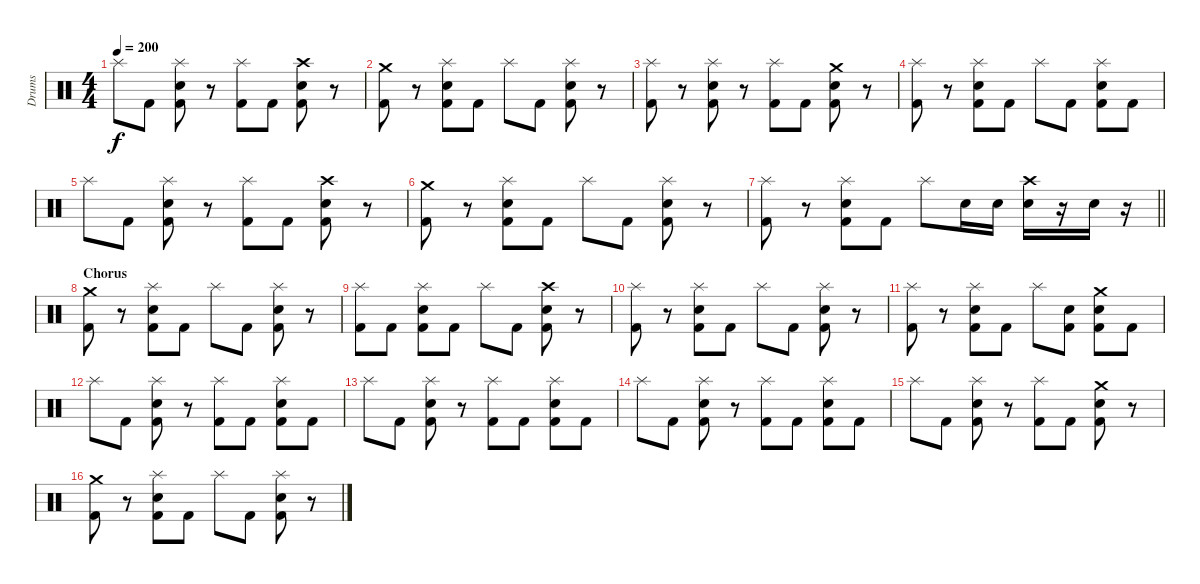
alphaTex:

\track ("Drums" "Drums") {instrument percussion}
\staff {score}
\articulation defaults
\ts (4 4)
\tempo 200
\clef neutral
\ks c "Splash (hit)".8{dy f} "Kick (hit) 2".8
("Splash (hit)" "Snare (hit) 2" "Kick (hit) 2").8 r.8 ("Splash (hit)" "Kick (hit) 2").8 "Kick (hit) 2".8 ("Crash high (hit)" "Snare (hit) 2" "Kick (hit) 2").8 r.8 |
("Crash medium (hit)" "Kick (hit) 2").8 r.8 ("Splash (hit)" "Snare (hit) 2" "Kick (hit) 2").8 "Kick (hit) 2".8 "Splash (hit)".8 "Kick (hit) 2".8 ("Splash (hit)" "Snare (hit) 2" "Kick (hit) 2").8 r.8 |
("Splash (hit)" "Kick (hit) 2").8 r.8 ("Splash (hit)" "Snare (hit) 2" "Kick (hit) 2").8 r.8 ("Splash (hit)" "Kick (hit) 2").8 "Kick (hit) 2".8 ("Crash medium (hit)" "Snare (hit) 2" "Kick (hit) 2").8 r.8 |
("Splash (hit)" "Kick (hit) 2").8 r.8 ("Splash (hit)" "Snare (hit) 2" "Kick (hit) 2").8 "Kick (hit) 2".8 "Splash (hit)".8 "Kick (hit) 2".8 ("Splash (hit)" "Snare (hit) 2" "Kick (hit) 2").8 "Kick (hit) 2".8 |
"Splash (hit)".8 "Kick (hit) 2".8 ("Splash (hit)" "Snare (hit) 2" "Kick (hit) 2").8 r.8 ("Splash (hit)" "Kick (hit) 2").8 "Kick (hit) 2".8 ("Crash high (hit)" "Snare (hit) 2" "Kick (hit) 2").8 r.8 |
("Crash medium (hit)" "Kick (hit) 2").8 r.8 ("Splash (hit)" "Snare (hit) 2" "Kick (hit) 2").8 "Kick (hit) 2".8 "Splash (hit)".8 "Kick (hit) 2".8 ("Splash (hit)" "Snare (hit) 2" "Kick (hit) 2").8 r.8 |
\barLineRight lightlight
("Splash (hit)" "Kick (hit) 2").8 r.8 ("Splash (hit)" "Snare (hit) 2" "Kick (hit) 2").8 "Kick (hit) 2".8 "Splash (hit)".8 "Snare (hit) 2".16 "Snare (hit) 2".16 ("Crash high (hit)" "Snare (hit) 2").16 r.16 "Snare (hit) 2".16 r.16 |
\section ("" "Chorus")
("Crash medium (hit)" "Kick (hit) 2").8 r.8 ("Splash (hit)" "Snare (hit) 2" "Kick (hit) 2").8 "Kick (hit) 2".8 "Splash (hit)".8 "Kick (hit) 2".8 ("Splash (hit)" "Snare (hit) 2" "Kick (hit) 2").8 r.8 |
("Splash (hit)" "Kick (hit) 2").8 "Kick (hit) 2".8 ("Splash (hit)" "Snare (hit) 2" "Kick (hit) 2").8 "Kick (hit) 2".8 "Splash (hit)".8 "Kick (hit) 2".8 ("Crash high (hit)" "Snare (hit) 2" "Kick (hit) 2").8 r.8 |
("Splash (hit)" "Kick (hit) 2").8 r.8 ("Splash (hit)" "Snare (hit) 2" "Kick (hit) 2").8 "Kick (hit) 2".8 "Splash (hit)".8 "Kick (hit) 2".8 ("Splash (hit)" "Snare (hit) 2" "Kick (hit) 2").8 r.8 |
("Splash (hit)" "Kick (hit) 2").8 r.8 ("Splash (hit)" "Snare (hit) 2" "Kick (hit) 2").8 "Kick (hit) 2".8 "Splash (hit)".8 ("Snare (hit) 2" "Kick (hit) 2").8 ("Crash medium (hit)" "Snare (hit) 2" "Kick (hit) 2").8 "Kick (hit) 2".8 |
"Splash (hit)".8 "Kick (hit) 2".8 ("Splash (hit)" "Snare (hit) 2" "Kick (hit) 2").8 r.8 ("Splash (hit)" "Kick (hit) 2").8 "Kick (hit) 2".8 ("Splash (hit)" "Snare (hit) 2" "Kick (hit) 2").8 "Kick (hit) 2".8 |
"Splash (hit)".8 "Kick (hit) 2".8 ("Splash (hit)" "Snare (hit) 2" "Kick (hit) 2").8 r.8 ("Splash (hit)" "Kick (hit) 2").8 "Kick (hit) 2".8 ("Splash (hit)" "Snare (hit) 2" "Kick (hit) 2").8 "Kick (hit) 2".8 |
"Splash (hit)".8 "Kick (hit) 2".8 ("Splash (hit)" "Snare (hit) 2" "Kick (hit) 2").8 r.8 ("Splash (hit)" "Kick (hit) 2").8 "Kick (hit) 2".8 ("Splash (hit)" "Snare (hit) 2" "Kick (hit) 2").8 "Kick (hit) 2".8 |
"Splash (hit)".8 "Kick (hit) 2".8 ("Splash (hit)" "Snare (hit) 2" "Kick (hit) 2").8 r.8 ("Splash (hit)" "Kick (hit) 2").8 "Kick (hit) 2".8 ("Crash medium (hit)" "Snare (hit) 2" "Kick (hit) 2").8 r.8 |
("Crash medium (hit)" "Kick (hit) 2").8 r.8 ("Splash (hit)" "Snare (hit) 2" "Kick (hit) 2").8 "Kick (hit) 2".8 "Splash (hit)".8 "Kick (hit) 2".8 ("Splash (hit)" "Snare (hit) 2" "Kick (hit) 2").8 r.8
